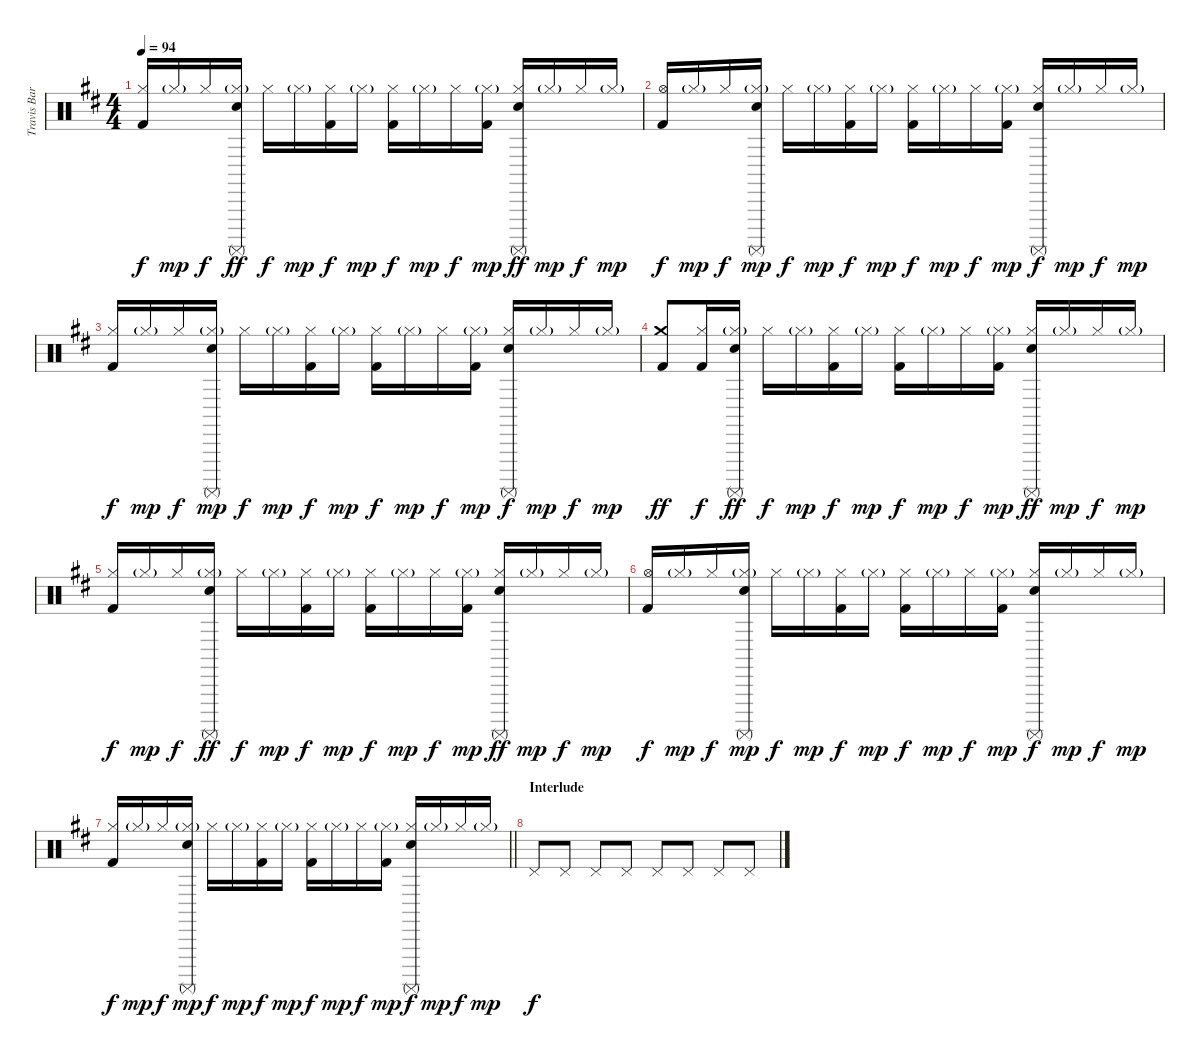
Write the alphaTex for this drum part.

\track ("Travis Barker" "Travis Bar") {instrument percussion}
\staff {score}
\articulation defaults
\ts (4 4)
\tempo 94
\clef neutral
\ks d
("Hi-Hat (closed)" "Kick (hit) 2").16{dy f} "Hi-Hat (closed)"{g}.16{dy mp} "Hi-Hat (closed)".16{dy f} ("Hi-Hat (closed)"{g} "Electric Snare (hit)" "Surdo (mute)").16{dy ff} "Hi-Hat (closed)".16{dy f} "Hi-Hat (closed)"{g}.16{dy mp} ("Hi-Hat (closed)" "Kick (hit) 2").16{dy f} "Hi-Hat (closed)"{g}.16{dy mp} ("Hi-Hat (closed)" "Kick (hit) 2").16{dy f} "Hi-Hat (closed)"{g}.16{dy mp} "Hi-Hat (closed)".16{dy f} ("Hi-Hat (closed)"{g} "Kick (hit) 2").16{dy mp} ("Hi-Hat (closed)" "Electric Snare (hit)" "Surdo (mute)").16{dy ff} "Hi-Hat (closed)"{g}.16{dy mp} "Hi-Hat (closed)".16{dy f} "Hi-Hat (closed)"{g}.16{dy mp} |
("Hi-Hat (open)" "Kick (hit) 2").16{dy f} "Hi-Hat (closed)"{g}.16{dy mp} "Hi-Hat (closed)".16{dy f} ("Hi-Hat (closed)"{g} "Electric Snare (hit)" "Surdo (mute)").16{dy mp} "Hi-Hat (closed)".16{dy f} "Hi-Hat (closed)"{g}.16{dy mp} ("Hi-Hat (closed)" "Kick (hit) 2").16{dy f} "Hi-Hat (closed)"{g}.16{dy mp} ("Hi-Hat (closed)" "Kick (hit) 2").16{dy f} "Hi-Hat (closed)"{g}.16{dy mp} "Hi-Hat (closed)".16{dy f} ("Hi-Hat (closed)"{g} "Kick (hit) 2").16{dy mp} ("Hi-Hat (closed)" "Electric Snare (hit)" "Surdo (mute)").16{dy f} "Hi-Hat (closed)"{g}.16{dy mp} "Hi-Hat (closed)".16{dy f} "Hi-Hat (closed)"{g}.16{dy mp} |
("Hi-Hat (closed)" "Kick (hit) 2").16{dy f} "Hi-Hat (closed)"{g}.16{dy mp} "Hi-Hat (closed)".16{dy f} ("Hi-Hat (closed)"{g} "Electric Snare (hit)" "Surdo (mute)").16{dy mp} "Hi-Hat (closed)".16{dy f} "Hi-Hat (closed)"{g}.16{dy mp} ("Hi-Hat (closed)" "Kick (hit) 2").16{dy f} "Hi-Hat (closed)"{g}.16{dy mp} ("Hi-Hat (closed)" "Kick (hit) 2").16{dy f} "Hi-Hat (closed)"{g}.16{dy mp} "Hi-Hat (closed)".16{dy f} ("Hi-Hat (closed)"{g} "Kick (hit) 2").16{dy mp} ("Hi-Hat (closed)" "Electric Snare (hit)" "Surdo (mute)").16{dy f} "Hi-Hat (closed)"{g}.16{dy mp} "Hi-Hat (closed)".16{dy f} "Hi-Hat (closed)"{g}.16{dy mp} |
("Crash medium (hit)" "Kick (hit) 2").8{dy ff} ("Hi-Hat (closed)" "Kick (hit) 2").16{dy f} ("Hi-Hat (closed)"{g} "Electric Snare (hit)" "Surdo (mute)").16{dy ff} "Hi-Hat (closed)".16{dy f} "Hi-Hat (closed)"{g}.16{dy mp} ("Hi-Hat (closed)" "Kick (hit) 2").16{dy f} "Hi-Hat (closed)"{g}.16{dy mp} ("Hi-Hat (closed)" "Kick (hit) 2").16{dy f} "Hi-Hat (closed)"{g}.16{dy mp} "Hi-Hat (closed)".16{dy f} ("Hi-Hat (closed)"{g} "Kick (hit) 2").16{dy mp} ("Hi-Hat (closed)" "Electric Snare (hit)" "Surdo (mute)").16{dy ff} "Hi-Hat (closed)"{g}.16{dy mp} "Hi-Hat (closed)".16{dy f} "Hi-Hat (closed)"{g}.16{dy mp} |
("Hi-Hat (closed)" "Kick (hit) 2").16{dy f} "Hi-Hat (closed)"{g}.16{dy mp} "Hi-Hat (closed)".16{dy f} ("Hi-Hat (closed)"{g} "Electric Snare (hit)" "Surdo (mute)").16{dy ff} "Hi-Hat (closed)".16{dy f} "Hi-Hat (closed)"{g}.16{dy mp} ("Hi-Hat (closed)" "Kick (hit) 2").16{dy f} "Hi-Hat (closed)"{g}.16{dy mp} ("Hi-Hat (closed)" "Kick (hit) 2").16{dy f} "Hi-Hat (closed)"{g}.16{dy mp} "Hi-Hat (closed)".16{dy f} ("Hi-Hat (closed)"{g} "Kick (hit) 2").16{dy mp} ("Hi-Hat (closed)" "Electric Snare (hit)" "Surdo (mute)").16{dy ff} "Hi-Hat (closed)"{g}.16{dy mp} "Hi-Hat (closed)".16{dy f} "Hi-Hat (closed)"{g}.16{dy mp} |
("Hi-Hat (open)" "Kick (hit) 2").16{dy f} "Hi-Hat (closed)"{g}.16{dy mp} "Hi-Hat (closed)".16{dy f} ("Hi-Hat (closed)"{g} "Electric Snare (hit)" "Surdo (mute)").16{dy mp} "Hi-Hat (closed)".16{dy f} "Hi-Hat (closed)"{g}.16{dy mp} ("Hi-Hat (closed)" "Kick (hit) 2").16{dy f} "Hi-Hat (closed)"{g}.16{dy mp} ("Hi-Hat (closed)" "Kick (hit) 2").16{dy f} "Hi-Hat (closed)"{g}.16{dy mp} "Hi-Hat (closed)".16{dy f} ("Hi-Hat (closed)"{g} "Kick (hit) 2").16{dy mp} ("Hi-Hat (closed)" "Electric Snare (hit)" "Surdo (mute)").16{dy f} "Hi-Hat (closed)"{g}.16{dy mp} "Hi-Hat (closed)".16{dy f} "Hi-Hat (closed)"{g}.16{dy mp} |
\barLineRight lightlight
("Hi-Hat (closed)" "Kick (hit) 2").16{dy f} "Hi-Hat (closed)"{g}.16{dy mp} "Hi-Hat (closed)".16{dy f} ("Hi-Hat (closed)"{g} "Electric Snare (hit)" "Surdo (mute)").16{dy mp} "Hi-Hat (closed)".16{dy f} "Hi-Hat (closed)"{g}.16{dy mp} ("Hi-Hat (closed)" "Kick (hit) 2").16{dy f} "Hi-Hat (closed)"{g}.16{dy mp} ("Hi-Hat (closed)" "Kick (hit) 2").16{dy f} "Hi-Hat (closed)"{g}.16{dy mp} "Hi-Hat (closed)".16{dy f} ("Hi-Hat (closed)"{g} "Kick (hit) 2").16{dy mp} ("Hi-Hat (closed)" "Electric Snare (hit)" "Surdo (mute)").16{dy f} "Hi-Hat (closed)"{g}.16{dy mp} "Hi-Hat (closed)".16{dy f} "Hi-Hat (closed)"{g}.16{dy mp} |
\section ("" "Interlude")
"Pedal Hi-Hat (hit)".8{dy f} "Pedal Hi-Hat (hit)".8 "Pedal Hi-Hat (hit)".8 "Pedal Hi-Hat (hit)".8 "Pedal Hi-Hat (hit)".8 "Pedal Hi-Hat (hit)".8 "Pedal Hi-Hat (hit)".8 "Pedal Hi-Hat (hit)".8
